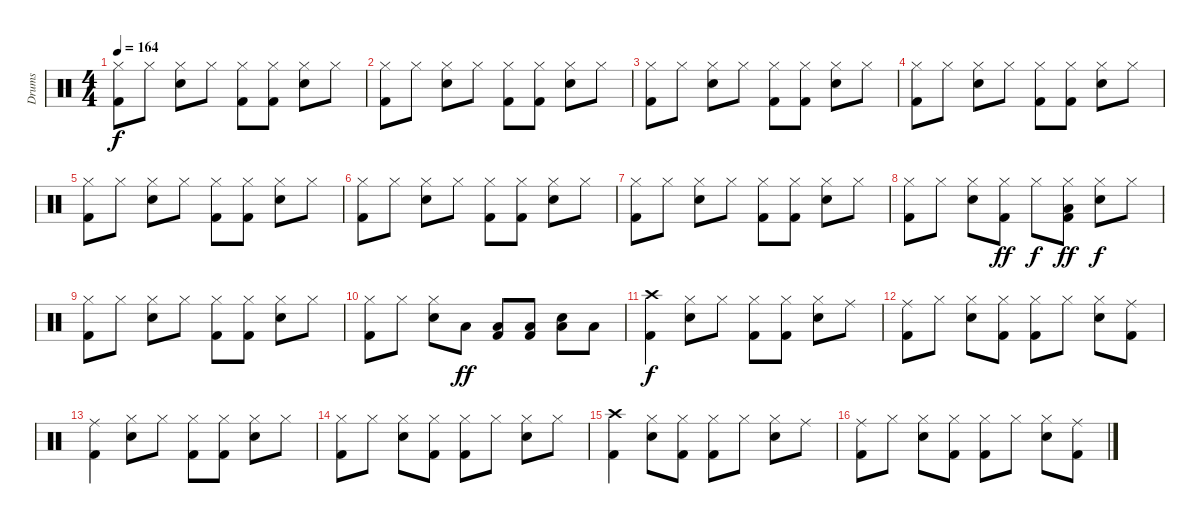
\track ("Drums" "Drums") {instrument percussion}
\staff {score}
\articulation defaults
\ts (4 4)
\tempo 164
\clef neutral
\ks c
("Hi-Hat (closed)" "Kick (hit) 2").8{dy f} "Hi-Hat (closed)".8 ("Hi-Hat (closed)" "Snare (hit) 2").8 "Hi-Hat (closed)".8 ("Hi-Hat (closed)" "Kick (hit) 2").8 ("Hi-Hat (closed)" "Kick (hit) 2").8 ("Hi-Hat (closed)" "Snare (hit) 2").8 "Hi-Hat (closed)".8 |
("Hi-Hat (closed)" "Kick (hit) 2").8 "Hi-Hat (closed)".8 ("Hi-Hat (closed)" "Snare (hit) 2").8 "Hi-Hat (closed)".8 ("Hi-Hat (closed)" "Kick (hit) 2").8 ("Hi-Hat (closed)" "Kick (hit) 2").8 ("Hi-Hat (closed)" "Snare (hit) 2").8 "Hi-Hat (closed)".8 |
("Hi-Hat (closed)" "Kick (hit) 2").8 "Hi-Hat (closed)".8 ("Hi-Hat (closed)" "Snare (hit) 2").8 "Hi-Hat (closed)".8 ("Hi-Hat (closed)" "Kick (hit) 2").8 ("Hi-Hat (closed)" "Kick (hit) 2").8 ("Hi-Hat (closed)" "Snare (hit) 2").8 "Hi-Hat (closed)".8 |
("Hi-Hat (closed)" "Kick (hit) 2").8 "Hi-Hat (closed)".8 ("Hi-Hat (closed)" "Snare (hit) 2").8 "Hi-Hat (closed)".8 ("Hi-Hat (closed)" "Kick (hit) 2").8 ("Hi-Hat (closed)" "Kick (hit) 2").8 ("Hi-Hat (closed)" "Snare (hit) 2").8 "Hi-Hat (closed)".8 |
("Hi-Hat (closed)" "Kick (hit) 2").8 "Hi-Hat (closed)".8 ("Hi-Hat (closed)" "Snare (hit) 2").8 "Hi-Hat (closed)".8 ("Hi-Hat (closed)" "Kick (hit) 2").8 ("Hi-Hat (closed)" "Kick (hit) 2").8 ("Hi-Hat (closed)" "Snare (hit) 2").8 "Hi-Hat (closed)".8 |
("Hi-Hat (closed)" "Kick (hit) 2").8 "Hi-Hat (closed)".8 ("Hi-Hat (closed)" "Snare (hit) 2").8 "Hi-Hat (closed)".8 ("Hi-Hat (closed)" "Kick (hit) 2").8 ("Hi-Hat (closed)" "Kick (hit) 2").8 ("Hi-Hat (closed)" "Snare (hit) 2").8 "Hi-Hat (closed)".8 |
("Hi-Hat (closed)" "Kick (hit) 2").8 "Hi-Hat (closed)".8 ("Hi-Hat (closed)" "Snare (hit) 2").8 "Hi-Hat (closed)".8 ("Hi-Hat (closed)" "Kick (hit) 2").8 ("Hi-Hat (closed)" "Kick (hit) 2").8 ("Hi-Hat (closed)" "Snare (hit) 2").8 "Hi-Hat (closed)".8 |
("Hi-Hat (closed)" "Kick (hit) 2").8 "Hi-Hat (closed)".8 ("Hi-Hat (closed)" "Snare (hit) 2").8 ("Hi-Hat (closed)" "Kick (hit) 2").8{dy ff} "Hi-Hat (closed)".8{dy f} ("Hi-Hat (closed)" "Low Floor Tom (hit)" "Kick (hit) 2").8{dy ff} ("Hi-Hat (closed)" "Snare (hit) 2").8{dy f} "Hi-Hat (closed)".8 |
("Hi-Hat (closed)" "Kick (hit) 2").8 "Hi-Hat (closed)".8 ("Hi-Hat (closed)" "Snare (hit) 2").8 "Hi-Hat (closed)".8 ("Hi-Hat (closed)" "Kick (hit) 2").8 ("Hi-Hat (closed)" "Kick (hit) 2").8 ("Hi-Hat (closed)" "Snare (hit) 2").8 "Hi-Hat (closed)".8 |
("Hi-Hat (closed)" "Kick (hit) 2").8 "Hi-Hat (closed)".8 ("Hi-Hat (closed)" "Snare (hit) 2").8 "Low Floor Tom (hit)".8{dy ff} ("Low Floor Tom (hit)" "Kick (hit) 2").8 ("Low Floor Tom (hit)" "Kick (hit) 2").8 ("Low Floor Tom (hit)" "Snare (hit) 2").8 "Low Floor Tom (hit)".8 |
("Crash high (hit)" "Kick (hit) 2").4{dy f} ("Hi-Hat (closed)" "Snare (hit) 2").8 "Hi-Hat (closed)".8 ("Hi-Hat (closed)" "Kick (hit) 2").8 ("Hi-Hat (closed)" "Kick (hit) 2").8 ("Hi-Hat (closed)" "Snare (hit) 2").8 "Ride (middle)".8 |
("Ride (middle)" "Kick (hit) 2").8 "Hi-Hat (closed)".8 ("Hi-Hat (closed)" "Snare (hit) 2").8 ("Hi-Hat (closed)" "Kick (hit) 2").8 ("Hi-Hat (closed)" "Kick (hit) 2").8 "Hi-Hat (closed)".8 ("Hi-Hat (closed)" "Snare (hit) 2").8 ("Ride (middle)" "Kick (hit) 2").8 |
("Ride (middle)" "Kick (hit) 2").4 ("Hi-Hat (closed)" "Snare (hit) 2").8 "Hi-Hat (closed)".8 ("Hi-Hat (closed)" "Kick (hit) 2").8 ("Hi-Hat (closed)" "Kick (hit) 2").8 ("Hi-Hat (closed)" "Snare (hit) 2").8 "Hi-Hat (closed)".8 |
("Hi-Hat (closed)" "Kick (hit) 2").8 "Hi-Hat (closed)".8 ("Hi-Hat (closed)" "Snare (hit) 2").8 ("Hi-Hat (closed)" "Kick (hit) 2").8 ("Hi-Hat (closed)" "Kick (hit) 2").8 "Hi-Hat (closed)".8 ("Hi-Hat (closed)" "Snare (hit) 2").8 "Hi-Hat (closed)".8 |
("Crash high (hit)" "Kick (hit) 2").4 ("Hi-Hat (closed)" "Snare (hit) 2").8 ("Hi-Hat (closed)" "Kick (hit) 2").8 ("Hi-Hat (closed)" "Kick (hit) 2").8 "Hi-Hat (closed)".8 ("Hi-Hat (closed)" "Snare (hit) 2").8 "Ride (middle)".8 |
("Ride (middle)" "Kick (hit) 2").8 "Hi-Hat (closed)".8 ("Hi-Hat (closed)" "Snare (hit) 2").8 ("Hi-Hat (closed)" "Kick (hit) 2").8 ("Hi-Hat (closed)" "Kick (hit) 2").8 "Hi-Hat (closed)".8 ("Hi-Hat (closed)" "Snare (hit) 2").8 ("Ride (middle)" "Kick (hit) 2").8
